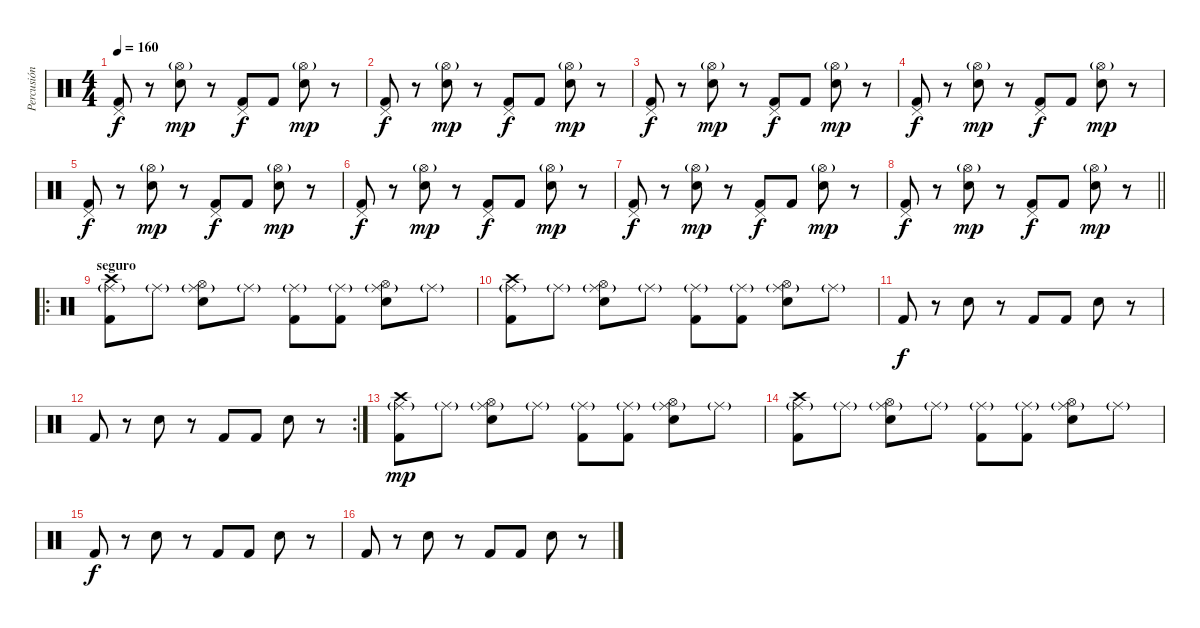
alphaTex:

\track ("Percusión" "Percusión") {instrument percussion}
\staff {score}
\articulation defaults
\ts (4 4)
\tempo 160
\clef neutral
\ks c
("Pedal Hi-Hat (hit)" "Kick (hit) 2").8{dy f} r.8 ("Hi-Hat (open)"{g} "Electric Snare (hit)").8{dy mp} r.8 ("Pedal Hi-Hat (hit)" "Kick (hit) 2").8{dy f} "Kick (hit) 2".8 ("Hi-Hat (open)"{g} "Electric Snare (hit)").8{dy mp} r.8 |
("Pedal Hi-Hat (hit)" "Kick (hit) 2").8{dy f} r.8 ("Hi-Hat (open)"{g} "Electric Snare (hit)").8{dy mp} r.8 ("Pedal Hi-Hat (hit)" "Kick (hit) 2").8{dy f} "Kick (hit) 2".8 ("Hi-Hat (open)"{g} "Electric Snare (hit)").8{dy mp} r.8 |
("Pedal Hi-Hat (hit)" "Kick (hit) 2").8{dy f} r.8 ("Hi-Hat (open)"{g} "Electric Snare (hit)").8{dy mp} r.8 ("Pedal Hi-Hat (hit)" "Kick (hit) 2").8{dy f} "Kick (hit) 2".8 ("Hi-Hat (open)"{g} "Electric Snare (hit)").8{dy mp} r.8 |
("Pedal Hi-Hat (hit)" "Kick (hit) 2").8{dy f} r.8 ("Hi-Hat (open)"{g} "Electric Snare (hit)").8{dy mp} r.8 ("Pedal Hi-Hat (hit)" "Kick (hit) 2").8{dy f} "Kick (hit) 2".8 ("Hi-Hat (open)"{g} "Electric Snare (hit)").8{dy mp} r.8 |
("Pedal Hi-Hat (hit)" "Kick (hit) 2").8{dy f} r.8 ("Hi-Hat (open)"{g} "Electric Snare (hit)").8{dy mp} r.8 ("Pedal Hi-Hat (hit)" "Kick (hit) 2").8{dy f} "Kick (hit) 2".8 ("Hi-Hat (open)"{g} "Electric Snare (hit)").8{dy mp} r.8 |
("Pedal Hi-Hat (hit)" "Kick (hit) 2").8{dy f} r.8 ("Hi-Hat (open)"{g} "Electric Snare (hit)").8{dy mp} r.8 ("Pedal Hi-Hat (hit)" "Kick (hit) 2").8{dy f} "Kick (hit) 2".8 ("Hi-Hat (open)"{g} "Electric Snare (hit)").8{dy mp} r.8 |
("Pedal Hi-Hat (hit)" "Kick (hit) 2").8{dy f} r.8 ("Hi-Hat (open)"{g} "Electric Snare (hit)").8{dy mp} r.8 ("Pedal Hi-Hat (hit)" "Kick (hit) 2").8{dy f} "Kick (hit) 2".8 ("Hi-Hat (open)"{g} "Electric Snare (hit)").8{dy mp} r.8 |
\barLineRight lightlight
("Pedal Hi-Hat (hit)" "Kick (hit) 2").8{dy f} r.8 ("Hi-Hat (open)"{g} "Electric Snare (hit)").8{dy mp} r.8 ("Pedal Hi-Hat (hit)" "Kick (hit) 2").8{dy f} "Kick (hit) 2".8 ("Hi-Hat (open)"{g} "Electric Snare (hit)").8{dy mp} r.8 |
\ro
\section ("" "seguro")
("Crash high (hit)" "Ride (middle)"{g} "Kick (hit) 2").8 "Ride (middle)"{g}.8 ("Hi-Hat (open)" "Ride (middle)"{g} "Electric Snare (hit)").8 "Ride (middle)"{g}.8 ("Ride (middle)"{g} "Kick (hit) 2").8 ("Ride (middle)"{g} "Kick (hit) 2").8 ("Hi-Hat (open)" "Ride (middle)"{g} "Electric Snare (hit)").8 "Ride (middle)"{g}.8 |
("Crash high (hit)" "Ride (middle)"{g} "Kick (hit) 2").8 "Ride (middle)"{g}.8 ("Hi-Hat (open)" "Ride (middle)"{g} "Electric Snare (hit)").8 "Ride (middle)"{g}.8 ("Ride (middle)"{g} "Kick (hit) 2").8 ("Ride (middle)"{g} "Kick (hit) 2").8 ("Hi-Hat (open)" "Ride (middle)"{g} "Electric Snare (hit)").8 "Ride (middle)"{g}.8 |
"Kick (hit) 2".8{dy f} r.8 "Electric Snare (hit)".8 r.8 "Kick (hit) 2".8 "Kick (hit) 2".8 "Electric Snare (hit)".8 r.8 |
\rc 2 "Kick (hit) 2".8
r.8 "Electric Snare (hit)".8 r.8 "Kick (hit) 2".8 "Kick (hit) 2".8 "Electric Snare (hit)".8 r.8 |
("Crash high (hit)" "Ride (middle)"{g} "Kick (hit) 2").8{dy mp} "Ride (middle)"{g}.8 ("Hi-Hat (open)" "Ride (middle)"{g} "Electric Snare (hit)").8 "Ride (middle)"{g}.8 ("Ride (middle)"{g} "Kick (hit) 2").8 ("Ride (middle)"{g} "Kick (hit) 2").8 ("Hi-Hat (open)" "Ride (middle)"{g} "Electric Snare (hit)").8 "Ride (middle)"{g}.8 |
("Crash high (hit)" "Ride (middle)"{g} "Kick (hit) 2").8 "Ride (middle)"{g}.8 ("Hi-Hat (open)" "Ride (middle)"{g} "Electric Snare (hit)").8 "Ride (middle)"{g}.8 ("Ride (middle)"{g} "Kick (hit) 2").8 ("Ride (middle)"{g} "Kick (hit) 2").8 ("Hi-Hat (open)" "Ride (middle)"{g} "Electric Snare (hit)").8 "Ride (middle)"{g}.8 |
"Kick (hit) 2".8{dy f} r.8 "Electric Snare (hit)".8 r.8 "Kick (hit) 2".8 "Kick (hit) 2".8 "Electric Snare (hit)".8 r.8 |
"Kick (hit) 2".8 r.8 "Electric Snare (hit)".8 r.8 "Kick (hit) 2".8 "Kick (hit) 2".8 "Electric Snare (hit)".8 r.8
